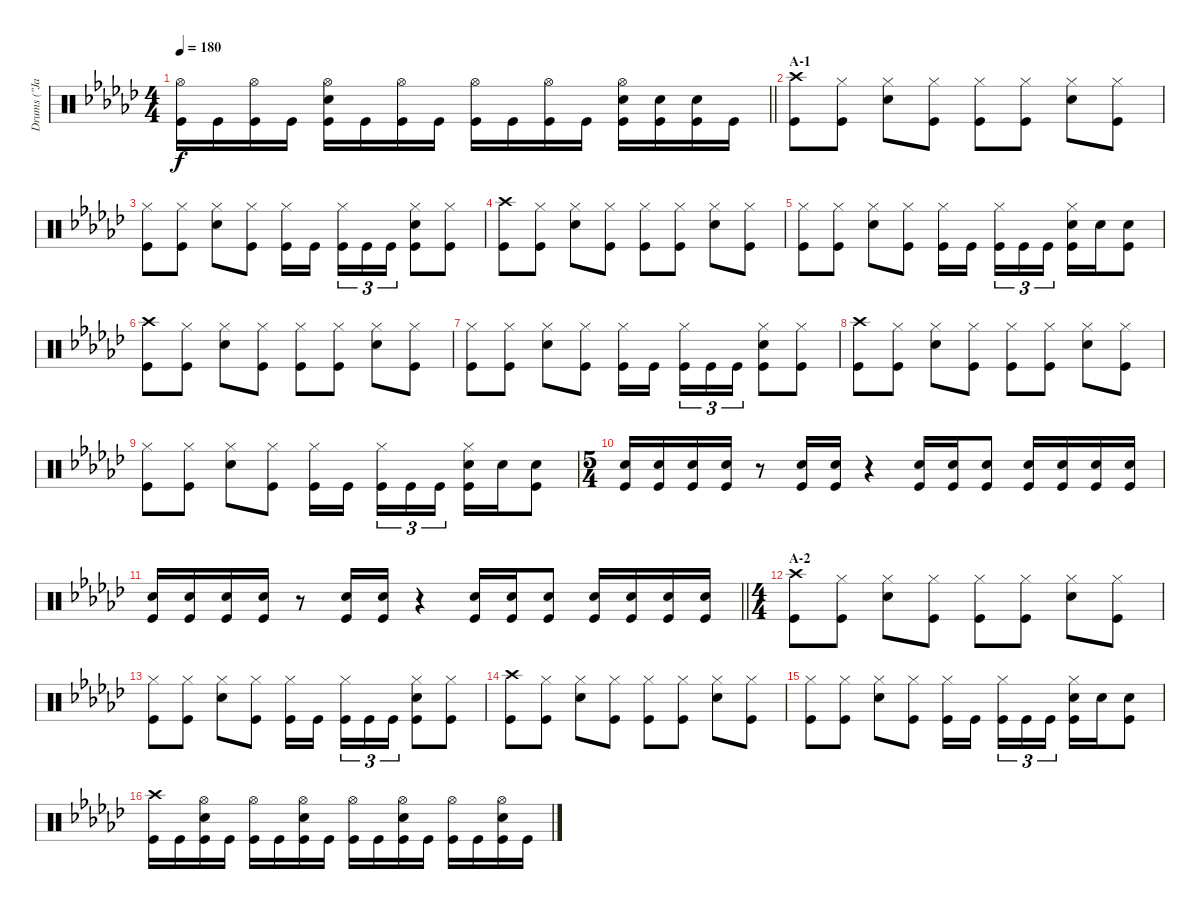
\track ("Drums (\"Jane\")" "Drums (\"Ja") {instrument percussion}
\staff {score}
\articulation defaults
\ts (4 4)
\tempo 180
\clef neutral
\barLineRight lightlight
\ks gb
("Hi-Hat (open)" "Kick (hit)").16{dy f} "Kick (hit)".16 ("Hi-Hat (open)" "Kick (hit)").16 "Kick (hit)".16 ("Hi-Hat (open)" "Snare (hit) 2" "Kick (hit)").16 "Kick (hit)".16 ("Hi-Hat (open)" "Kick (hit)").16 "Kick (hit)".16 ("Hi-Hat (open)" "Kick (hit)").16 "Kick (hit)".16 ("Hi-Hat (open)" "Kick (hit)").16 "Kick (hit)".16 ("Hi-Hat (open)" "Snare (hit) 2" "Kick (hit)").16 ("Snare (hit) 2" "Kick (hit)").16 ("Snare (hit) 2" "Kick (hit)").16 "Kick (hit)".16 |
\section ("" "A-1")
("Crash high (hit)" "Kick (hit)").8 ("Hi-Hat (closed)" "Kick (hit)").8 ("Hi-Hat (closed)" "Snare (hit) 2").8 ("Hi-Hat (closed)" "Kick (hit)").8 ("Hi-Hat (closed)" "Kick (hit)").8 ("Hi-Hat (closed)" "Kick (hit)").8 ("Hi-Hat (closed)" "Snare (hit) 2").8 ("Hi-Hat (closed)" "Kick (hit)").8 |
("Hi-Hat (closed)" "Kick (hit)").8 ("Hi-Hat (closed)" "Kick (hit)").8 ("Hi-Hat (closed)" "Snare (hit) 2").8 ("Hi-Hat (closed)" "Kick (hit)").8 ("Hi-Hat (closed)" "Kick (hit)").16 "Kick (hit)".16{beam splitsecondary} ("Hi-Hat (closed)" "Kick (hit)").16{tu (3 2)} "Kick (hit)".16{tu (3 2)} "Kick (hit)".16{tu (3 2)} ("Hi-Hat (closed)" "Snare (hit) 2" "Kick (hit)").8 ("Hi-Hat (closed)" "Kick (hit)").8 |
("Crash high (hit)" "Kick (hit)").8 ("Hi-Hat (closed)" "Kick (hit)").8 ("Hi-Hat (closed)" "Snare (hit) 2").8 ("Hi-Hat (closed)" "Kick (hit)").8 ("Hi-Hat (closed)" "Kick (hit)").8 ("Hi-Hat (closed)" "Kick (hit)").8 ("Hi-Hat (closed)" "Snare (hit) 2").8 ("Hi-Hat (closed)" "Kick (hit)").8 |
("Hi-Hat (closed)" "Kick (hit)").8 ("Hi-Hat (closed)" "Kick (hit)").8 ("Hi-Hat (closed)" "Snare (hit) 2").8 ("Hi-Hat (closed)" "Kick (hit)").8 ("Hi-Hat (closed)" "Kick (hit)").16 "Kick (hit)".16{beam splitsecondary} ("Hi-Hat (closed)" "Kick (hit)").16{tu (3 2)} "Kick (hit)".16{tu (3 2)} "Kick (hit)".16{tu (3 2)} ("Hi-Hat (closed)" "Snare (hit) 2" "Kick (hit)").16 "Snare (hit) 2".16 ("Snare (hit) 2" "Kick (hit)").8 |
("Crash high (hit)" "Kick (hit)").8 ("Hi-Hat (closed)" "Kick (hit)").8 ("Hi-Hat (closed)" "Snare (hit) 2").8 ("Hi-Hat (closed)" "Kick (hit)").8 ("Hi-Hat (closed)" "Kick (hit)").8 ("Hi-Hat (closed)" "Kick (hit)").8 ("Hi-Hat (closed)" "Snare (hit) 2").8 ("Hi-Hat (closed)" "Kick (hit)").8 |
("Hi-Hat (closed)" "Kick (hit)").8 ("Hi-Hat (closed)" "Kick (hit)").8 ("Hi-Hat (closed)" "Snare (hit) 2").8 ("Hi-Hat (closed)" "Kick (hit)").8 ("Hi-Hat (closed)" "Kick (hit)").16 "Kick (hit)".16{beam splitsecondary} ("Hi-Hat (closed)" "Kick (hit)").16{tu (3 2)} "Kick (hit)".16{tu (3 2)} "Kick (hit)".16{tu (3 2)} ("Hi-Hat (closed)" "Snare (hit) 2" "Kick (hit)").8 ("Hi-Hat (closed)" "Kick (hit)").8 |
("Crash high (hit)" "Kick (hit)").8 ("Hi-Hat (closed)" "Kick (hit)").8 ("Hi-Hat (closed)" "Snare (hit) 2").8 ("Hi-Hat (closed)" "Kick (hit)").8 ("Hi-Hat (closed)" "Kick (hit)").8 ("Hi-Hat (closed)" "Kick (hit)").8 ("Hi-Hat (closed)" "Snare (hit) 2").8 ("Hi-Hat (closed)" "Kick (hit)").8 |
("Hi-Hat (closed)" "Kick (hit)").8 ("Hi-Hat (closed)" "Kick (hit)").8 ("Hi-Hat (closed)" "Snare (hit) 2").8 ("Hi-Hat (closed)" "Kick (hit)").8 ("Hi-Hat (closed)" "Kick (hit)").16 "Kick (hit)".16{beam splitsecondary} ("Hi-Hat (closed)" "Kick (hit)").16{tu (3 2)} "Kick (hit)".16{tu (3 2)} "Kick (hit)".16{tu (3 2)} ("Hi-Hat (closed)" "Snare (hit) 2" "Kick (hit)").16 "Snare (hit) 2".16 ("Snare (hit) 2" "Kick (hit)").8 |
\ts (5 4)
("Snare (hit) 2" "Kick (hit)").16 ("Snare (hit) 2" "Kick (hit)").16 ("Snare (hit) 2" "Kick (hit)").16 ("Snare (hit) 2" "Kick (hit)").16 r.8 ("Snare (hit) 2" "Kick (hit)").16 ("Snare (hit) 2" "Kick (hit)").16 r.4 ("Snare (hit) 2" "Kick (hit)").16 ("Snare (hit) 2" "Kick (hit)").16 ("Snare (hit) 2" "Kick (hit)").8 ("Snare (hit) 2" "Kick (hit)").16 ("Snare (hit) 2" "Kick (hit)").16 ("Snare (hit) 2" "Kick (hit)").16 ("Snare (hit) 2" "Kick (hit)").16 |
\barLineRight lightlight
("Snare (hit) 2" "Kick (hit)").16 ("Snare (hit) 2" "Kick (hit)").16 ("Snare (hit) 2" "Kick (hit)").16 ("Snare (hit) 2" "Kick (hit)").16 r.8 ("Snare (hit) 2" "Kick (hit)").16 ("Snare (hit) 2" "Kick (hit)").16 r.4 ("Snare (hit) 2" "Kick (hit)").16 ("Snare (hit) 2" "Kick (hit)").16 ("Snare (hit) 2" "Kick (hit)").8 ("Snare (hit) 2" "Kick (hit)").16 ("Snare (hit) 2" "Kick (hit)").16 ("Snare (hit) 2" "Kick (hit)").16 ("Snare (hit) 2" "Kick (hit)").16 |
\ts (4 4)
\section ("" "A-2")
("Crash high (hit)" "Kick (hit)").8 ("Hi-Hat (closed)" "Kick (hit)").8 ("Hi-Hat (closed)" "Snare (hit) 2").8 ("Hi-Hat (closed)" "Kick (hit)").8 ("Hi-Hat (closed)" "Kick (hit)").8 ("Hi-Hat (closed)" "Kick (hit)").8 ("Hi-Hat (closed)" "Snare (hit) 2").8 ("Hi-Hat (closed)" "Kick (hit)").8 |
("Hi-Hat (closed)" "Kick (hit)").8 ("Hi-Hat (closed)" "Kick (hit)").8 ("Hi-Hat (closed)" "Snare (hit) 2").8 ("Hi-Hat (closed)" "Kick (hit)").8 ("Hi-Hat (closed)" "Kick (hit)").16 "Kick (hit)".16{beam splitsecondary} ("Hi-Hat (closed)" "Kick (hit)").16{tu (3 2)} "Kick (hit)".16{tu (3 2)} "Kick (hit)".16{tu (3 2)} ("Hi-Hat (closed)" "Snare (hit) 2" "Kick (hit)").8 ("Hi-Hat (closed)" "Kick (hit)").8 |
("Crash high (hit)" "Kick (hit)").8 ("Hi-Hat (closed)" "Kick (hit)").8 ("Hi-Hat (closed)" "Snare (hit) 2").8 ("Hi-Hat (closed)" "Kick (hit)").8 ("Hi-Hat (closed)" "Kick (hit)").8 ("Hi-Hat (closed)" "Kick (hit)").8 ("Hi-Hat (closed)" "Snare (hit) 2").8 ("Hi-Hat (closed)" "Kick (hit)").8 |
("Hi-Hat (closed)" "Kick (hit)").8 ("Hi-Hat (closed)" "Kick (hit)").8 ("Hi-Hat (closed)" "Snare (hit) 2").8 ("Hi-Hat (closed)" "Kick (hit)").8 ("Hi-Hat (closed)" "Kick (hit)").16 "Kick (hit)".16{beam splitsecondary} ("Hi-Hat (closed)" "Kick (hit)").16{tu (3 2)} "Kick (hit)".16{tu (3 2)} "Kick (hit)".16{tu (3 2)} ("Hi-Hat (closed)" "Snare (hit) 2" "Kick (hit)").16 "Snare (hit) 2".16 ("Snare (hit) 2" "Kick (hit)").8 |
("Crash high (hit)" "Kick (hit)").16 "Kick (hit)".16 ("Hi-Hat (open)" "Snare (hit) 2" "Kick (hit)").16 "Kick (hit)".16 ("Hi-Hat (open)" "Kick (hit)").16 "Kick (hit)".16 ("Hi-Hat (open)" "Snare (hit) 2" "Kick (hit)").16 "Kick (hit)".16 ("Hi-Hat (open)" "Kick (hit)").16 "Kick (hit)".16 ("Hi-Hat (open)" "Snare (hit) 2" "Kick (hit)").16 "Kick (hit)".16 ("Hi-Hat (open)" "Kick (hit)").16 "Kick (hit)".16 ("Hi-Hat (open)" "Snare (hit) 2" "Kick (hit)").16 "Kick (hit)".16
